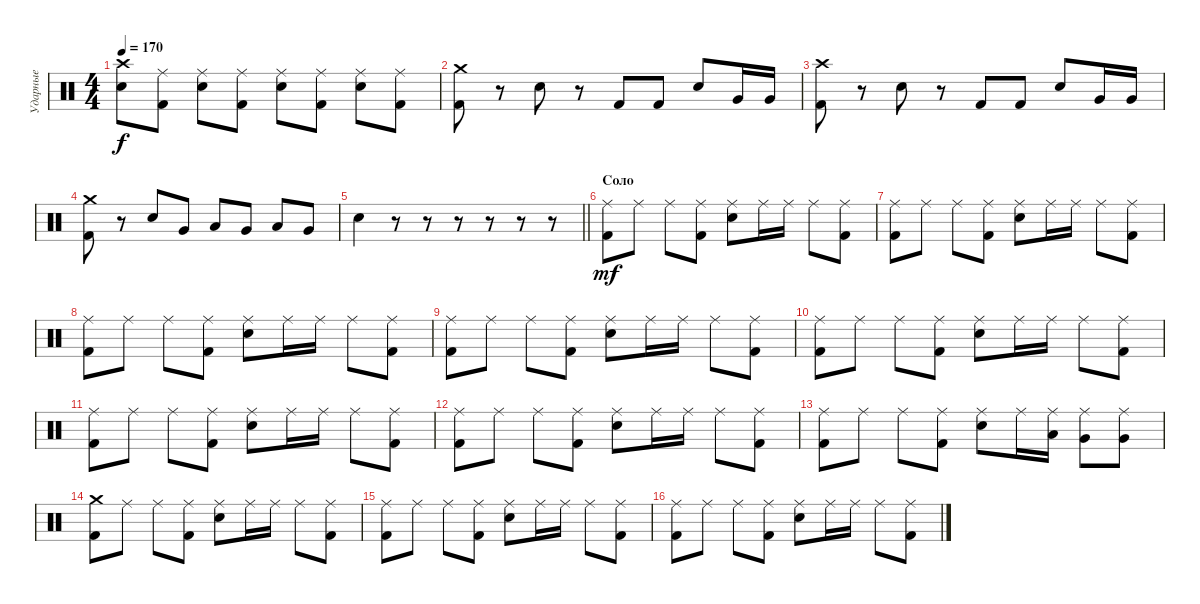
\track ("Ударные" "Ударные") {instrument percussion}
\staff {score}
\articulation defaults
\ts (4 4)
\tempo 170
\clef neutral
\ks c
("Crash high (hit)" "Snare (hit) 2").8{dy f} ("Ride (middle)" "Kick (hit) 2").8 ("Ride (middle)" "Snare (hit) 2").8 ("Ride (middle)" "Kick (hit) 2").8 ("Ride (middle)" "Snare (hit) 2").8 ("Ride (middle)" "Kick (hit) 2").8 ("Ride (middle)" "Snare (hit) 2").8 ("Ride (middle)" "Kick (hit) 2").8 |
("Crash medium (hit)" "Kick (hit) 2").8 r.8 "Snare (hit) 2".8 r.8 "Kick (hit) 2".8 "Kick (hit) 2".8 "Snare (hit) 2".8 "Very Low Tom (hit)".16 "Very Low Tom (hit)".16 |
("Crash high (hit)" "Kick (hit) 2").8 r.8 "Snare (hit) 2".8 r.8 "Kick (hit) 2".8 "Kick (hit) 2".8 "Snare (hit) 2".8 "Very Low Tom (hit)".16 "Very Low Tom (hit)".16 |
("Crash medium (hit)" "Kick (hit) 2").8 r.8 "Snare (hit) 2".8 "Very Low Tom (hit)".8 "Low Tom (hit)".8 "Very Low Tom (hit)".8 "Low Tom (hit)".8 "Very Low Tom (hit)".8 |
\barLineRight lightlight "Snare (hit) 2".4
r.8 r.8 r.8 r.8 r.8 r.8 |
\section ("" "Соло")
("Ride (middle)" "Kick (hit) 2").8{dy mf} "Ride (middle)".8 "Ride (middle)".8 ("Ride (middle)" "Kick (hit) 2").8 ("Ride (middle)" "Snare (hit) 2").8 "Ride (middle)".16 "Ride (middle)".16 "Ride (middle)".8 ("Ride (middle)" "Kick (hit) 2").8 |
("Ride (middle)" "Kick (hit) 2").8 "Ride (middle)".8 "Ride (middle)".8 ("Ride (middle)" "Kick (hit) 2").8 ("Ride (middle)" "Snare (hit) 2").8 "Ride (middle)".16 "Ride (middle)".16 "Ride (middle)".8 ("Ride (middle)" "Kick (hit) 2").8 |
("Ride (middle)" "Kick (hit) 2").8 "Ride (middle)".8 "Ride (middle)".8 ("Ride (middle)" "Kick (hit) 2").8 ("Ride (middle)" "Snare (hit) 2").8 "Ride (middle)".16 "Ride (middle)".16 "Ride (middle)".8 ("Ride (middle)" "Kick (hit) 2").8 |
("Ride (middle)" "Kick (hit) 2").8 "Ride (middle)".8 "Ride (middle)".8 ("Ride (middle)" "Kick (hit) 2").8 ("Ride (middle)" "Snare (hit) 2").8 "Ride (middle)".16 "Ride (middle)".16 "Ride (middle)".8 ("Ride (middle)" "Kick (hit) 2").8 |
("Ride (middle)" "Kick (hit) 2").8 "Ride (middle)".8 "Ride (middle)".8 ("Ride (middle)" "Kick (hit) 2").8 ("Ride (middle)" "Snare (hit) 2").8 "Ride (middle)".16 "Ride (middle)".16 "Ride (middle)".8 ("Ride (middle)" "Kick (hit) 2").8 |
("Ride (middle)" "Kick (hit) 2").8 "Ride (middle)".8 "Ride (middle)".8 ("Ride (middle)" "Kick (hit) 2").8 ("Ride (middle)" "Snare (hit) 2").8 "Ride (middle)".16 "Ride (middle)".16 "Ride (middle)".8 ("Ride (middle)" "Kick (hit) 2").8 |
("Ride (middle)" "Kick (hit) 2").8 "Ride (middle)".8 "Ride (middle)".8 ("Ride (middle)" "Kick (hit) 2").8 ("Ride (middle)" "Snare (hit) 2").8 "Ride (middle)".16 "Ride (middle)".16 "Ride (middle)".8 ("Ride (middle)" "Kick (hit) 2").8 |
("Ride (middle)" "Kick (hit) 2").8 "Ride (middle)".8 "Ride (middle)".8 ("Ride (middle)" "Kick (hit) 2").8 ("Ride (middle)" "Snare (hit) 2").8 "Ride (middle)".16 ("Ride (middle)" "Low Tom (hit)").16 ("Ride (middle)" "Very Low Tom (hit)").8 ("Ride (middle)" "Very Low Tom (hit)").8 |
("Crash medium (hit)" "Kick (hit) 2").8 "Ride (middle)".8 "Ride (middle)".8 ("Ride (middle)" "Kick (hit) 2").8 ("Ride (middle)" "Snare (hit) 2").8 "Ride (middle)".16 "Ride (middle)".16 "Ride (middle)".8 ("Ride (middle)" "Kick (hit) 2").8 |
("Ride (middle)" "Kick (hit) 2").8 "Ride (middle)".8 "Ride (middle)".8 ("Ride (middle)" "Kick (hit) 2").8 ("Ride (middle)" "Snare (hit) 2").8 "Ride (middle)".16 "Ride (middle)".16 "Ride (middle)".8 ("Ride (middle)" "Kick (hit) 2").8 |
("Ride (middle)" "Kick (hit) 2").8 "Ride (middle)".8 "Ride (middle)".8 ("Ride (middle)" "Kick (hit) 2").8 ("Ride (middle)" "Snare (hit) 2").8 "Ride (middle)".16 "Ride (middle)".16 "Ride (middle)".8 ("Ride (middle)" "Kick (hit) 2").8
